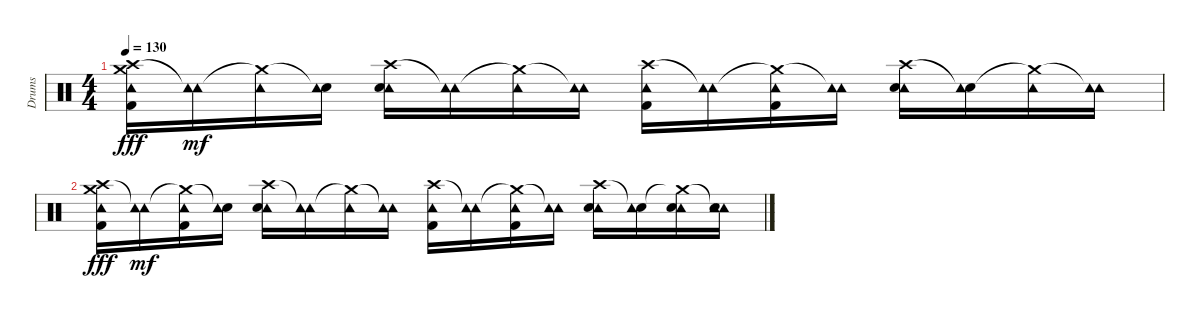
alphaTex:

\track ("Drums" "Drums") {instrument percussion}
\staff {score}
\articulation defaults
\ts (4 4)
\tempo 130
\clef neutral
\ks c
("Crash high (hit)" "Tambourine (hit)" "Crash medium (hit)" "Kick (hit) 2").16{dy fff} ("Tambourine (hit)"{t} "Tambourine (hit)").16{dy mf} ("Crash medium (hit)"{t} "Tambourine (hit)").16 ("Snare (hit)"{t} "Tambourine (hit)").16 ("Crash high (hit)" "Tambourine (hit)" "Snare (hit) 2").16 ("Tambourine (hit)"{t} "Tambourine (hit)").16 ("Crash medium (hit)"{t} "Tambourine (hit)").16 ("Tambourine (hit)"{t} "Tambourine (hit)").16 ("Crash high (hit)" "Tambourine (hit)" "Kick (hit) 2").16 ("Tambourine (hit)"{t} "Tambourine (hit)").16 ("Crash medium (hit)"{t} "Tambourine (hit)" "Kick (hit) 2").16 ("Tambourine (hit)"{t} "Tambourine (hit)").16 ("Crash high (hit)" "Tambourine (hit)" "Snare (hit) 2").16 ("Snare (hit)"{t} "Tambourine (hit)").16 ("Crash medium (hit)"{t} "Tambourine (hit)").16 ("Tambourine (hit)"{t} "Tambourine (hit)").16 |
("Crash high (hit)" "Tambourine (hit)" "Crash medium (hit)" "Kick (hit) 2").16{dy fff} ("Tambourine (hit)"{t} "Tambourine (hit)").16{dy mf} ("Crash medium (hit)"{t} "Tambourine (hit)" "Kick (hit) 2").16 ("Snare (hit)"{t} "Tambourine (hit)").16 ("Crash high (hit)" "Tambourine (hit)" "Snare (hit) 2").16 ("Tambourine (hit)"{t} "Tambourine (hit)").16 ("Crash medium (hit)"{t} "Tambourine (hit)").16 ("Tambourine (hit)"{t} "Tambourine (hit)").16 ("Crash high (hit)" "Tambourine (hit)" "Kick (hit) 2").16 ("Tambourine (hit)"{t} "Tambourine (hit)").16 ("Crash medium (hit)"{t} "Tambourine (hit)" "Kick (hit) 2").16 ("Tambourine (hit)"{t} "Tambourine (hit)").16 ("Crash high (hit)" "Tambourine (hit)" "Snare (hit) 2").16 ("Snare (hit)"{t} "Tambourine (hit)").16 ("Crash medium (hit)"{t} "Tambourine (hit)" "Snare (hit) 2").16 ("Tambourine (hit)"{t} "Tambourine (hit)" "Snare (hit) 2").16
